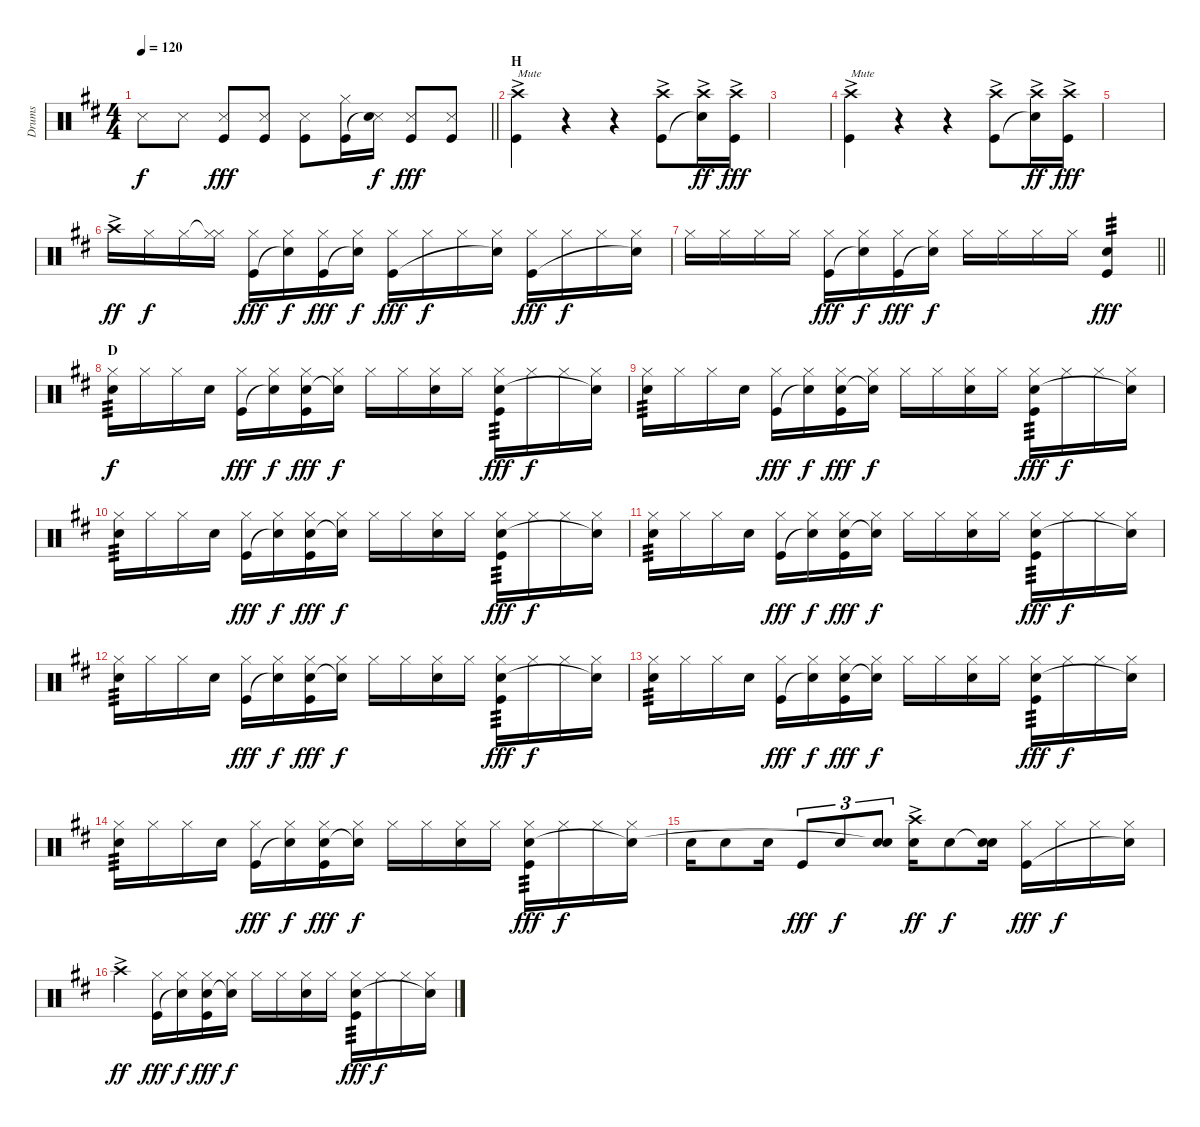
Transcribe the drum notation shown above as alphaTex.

\track ("Drums" "Drums") {instrument percussion}
\staff {score}
\articulation defaults
\ts (4 4)
\tempo 120
\clef neutral
\barLineRight lightlight
\ks d "Snare (side stick) 3".8{dy f} "Snare (side stick) 3".8
("Snare (side stick) 3" "Kick (hit)").8{dy fff} ("Snare (side stick) 3" "Kick (hit)").8 ("Snare (side stick) 3" "Kick (hit)").8 ("Hi-Hat (closed)" "Kick (hit)").16{txt ""} ("Snare (side stick) 3" "Snare (hit)"{t}).16{dy f} ("Snare (side stick) 3" "Kick (hit)").8{dy fff} ("Snare (side stick) 3" "Kick (hit)").8 |
\section ("" "H")
("Crash high (hit)"{ac} "Kick (hit)").4{txt "Mute"} r.4 r.4 ("Crash high (hit)"{ac} "Kick (hit)").8 ("Crash high (hit)"{ac} "Snare (hit)"{t}).16{dy ff} ("Crash high (hit)"{ac} "Kick (hit)").16{dy fff} |
|
("Crash high (hit)"{ac} "Kick (hit)").4{txt "Mute"} r.4 r.4 ("Crash high (hit)"{ac} "Kick (hit)").8 ("Crash high (hit)"{ac} "Snare (hit)"{t}).16{dy ff} ("Crash high (hit)"{ac} "Kick (hit)").16{dy fff} |
|
"Crash high (hit)"{ac}.16{dy ff} "Hi-Hat (closed)".16{dy f} "Hi-Hat (closed)".16 ("Hi-Hat (closed)"{t} "Hi-Hat (closed)").16 ("Hi-Hat (closed)" "Kick (hit)").16{dy fff} ("Hi-Hat (closed)" "Snare (hit)"{t}).16{dy f} ("Hi-Hat (closed)" "Kick (hit)").16{dy fff} ("Hi-Hat (closed)" "Snare (hit)"{t}).16{dy f} ("Hi-Hat (closed)" "Kick (hit)").16{dy fff} "Hi-Hat (closed)".16{dy f} "Hi-Hat (closed)".16 ("Hi-Hat (closed)" "Snare (hit)"{t}).16 ("Hi-Hat (closed)" "Kick (hit)").16{dy fff} "Hi-Hat (closed)".16{dy f} "Hi-Hat (closed)".16 ("Hi-Hat (closed)" "Snare (hit)"{t}).16 |
\barLineRight lightlight "Hi-Hat (closed)".16 "Hi-Hat (closed)".16 "Hi-Hat (closed)".16 "Hi-Hat (closed)".16
("Hi-Hat (closed)" "Kick (hit)").16{dy fff} ("Hi-Hat (closed)" "Snare (hit)"{t}).16{dy f} ("Hi-Hat (closed)" "Kick (hit)").16{dy fff} ("Hi-Hat (closed)" "Snare (hit)"{t}).16{dy f} "Hi-Hat (closed)".16 "Hi-Hat (closed)".16 "Hi-Hat (closed)".16 "Hi-Hat (closed)".16 ("Snare (hit) 2" "Kick (hit)").4{tp 3 dy fff} |
\section ("" "D")
("Hi-Hat (closed)" "Snare (hit) 2").16{tp 3 dy f} "Hi-Hat (closed)".16 "Hi-Hat (closed)".16 "Snare (hit) 2".16 ("Hi-Hat (closed)" "Kick (hit)").16{dy fff} ("Hi-Hat (closed)" "Snare (hit)"{t}).16{dy f} ("Hi-Hat (closed)" "Snare (hit) 2" "Kick (hit)").16{dy fff} ("Hi-Hat (closed)" "Snare (hit)"{t}).16{dy f} "Hi-Hat (closed)".16 "Hi-Hat (closed)".16 ("Hi-Hat (closed)" "Snare (hit) 2").16 "Hi-Hat (closed)".16 ("Hi-Hat (closed)" "Snare (hit) 2" "Kick (hit)").16{tp 3 dy fff} "Hi-Hat (closed)".16{dy f} "Hi-Hat (closed)".16 ("Hi-Hat (closed)" "Snare (hit)"{t}).16 |
("Hi-Hat (closed)" "Snare (hit) 2").16{tp 3} "Hi-Hat (closed)".16 "Hi-Hat (closed)".16 "Snare (hit) 2".16 ("Hi-Hat (closed)" "Kick (hit)").16{dy fff} ("Hi-Hat (closed)" "Snare (hit)"{t}).16{dy f} ("Hi-Hat (closed)" "Snare (hit) 2" "Kick (hit)").16{dy fff} ("Hi-Hat (closed)" "Snare (hit)"{t}).16{dy f} "Hi-Hat (closed)".16 "Hi-Hat (closed)".16 ("Hi-Hat (closed)" "Snare (hit) 2").16 "Hi-Hat (closed)".16 ("Hi-Hat (closed)" "Snare (hit) 2" "Kick (hit)").16{tp 3 dy fff} "Hi-Hat (closed)".16{dy f} "Hi-Hat (closed)".16 ("Hi-Hat (closed)" "Snare (hit)"{t}).16 |
("Hi-Hat (closed)" "Snare (hit) 2").16{tp 3} "Hi-Hat (closed)".16 "Hi-Hat (closed)".16 "Snare (hit) 2".16 ("Hi-Hat (closed)" "Kick (hit)").16{dy fff} ("Hi-Hat (closed)" "Snare (hit)"{t}).16{dy f} ("Hi-Hat (closed)" "Snare (hit) 2" "Kick (hit)").16{dy fff} ("Hi-Hat (closed)" "Snare (hit)"{t}).16{dy f} "Hi-Hat (closed)".16 "Hi-Hat (closed)".16 ("Hi-Hat (closed)" "Snare (hit) 2").16 "Hi-Hat (closed)".16 ("Hi-Hat (closed)" "Snare (hit) 2" "Kick (hit)").16{tp 3 dy fff} "Hi-Hat (closed)".16{dy f} "Hi-Hat (closed)".16 ("Hi-Hat (closed)" "Snare (hit)"{t}).16 |
("Hi-Hat (closed)" "Snare (hit) 2").16{tp 3} "Hi-Hat (closed)".16 "Hi-Hat (closed)".16 "Snare (hit) 2".16 ("Hi-Hat (closed)" "Kick (hit)").16{dy fff} ("Hi-Hat (closed)" "Snare (hit)"{t}).16{dy f} ("Hi-Hat (closed)" "Snare (hit) 2" "Kick (hit)").16{dy fff} ("Hi-Hat (closed)" "Snare (hit)"{t}).16{dy f} "Hi-Hat (closed)".16 "Hi-Hat (closed)".16 ("Hi-Hat (closed)" "Snare (hit) 2").16 "Hi-Hat (closed)".16 ("Hi-Hat (closed)" "Snare (hit) 2" "Kick (hit)").16{tp 3 dy fff} "Hi-Hat (closed)".16{dy f} "Hi-Hat (closed)".16 ("Hi-Hat (closed)" "Snare (hit)"{t}).16 |
("Hi-Hat (closed)" "Snare (hit) 2").16{tp 3} "Hi-Hat (closed)".16 "Hi-Hat (closed)".16 "Snare (hit) 2".16 ("Hi-Hat (closed)" "Kick (hit)").16{dy fff} ("Hi-Hat (closed)" "Snare (hit)"{t}).16{dy f} ("Hi-Hat (closed)" "Snare (hit) 2" "Kick (hit)").16{dy fff} ("Hi-Hat (closed)" "Snare (hit)"{t}).16{dy f} "Hi-Hat (closed)".16 "Hi-Hat (closed)".16 ("Hi-Hat (closed)" "Snare (hit) 2").16 "Hi-Hat (closed)".16 ("Hi-Hat (closed)" "Snare (hit) 2" "Kick (hit)").16{tp 3 dy fff} "Hi-Hat (closed)".16{dy f} "Hi-Hat (closed)".16 ("Hi-Hat (closed)" "Snare (hit)"{t}).16 |
("Hi-Hat (closed)" "Snare (hit) 2").16{tp 3} "Hi-Hat (closed)".16 "Hi-Hat (closed)".16 "Snare (hit) 2".16 ("Hi-Hat (closed)" "Kick (hit)").16{dy fff} ("Hi-Hat (closed)" "Snare (hit)"{t}).16{dy f} ("Hi-Hat (closed)" "Snare (hit) 2" "Kick (hit)").16{dy fff} ("Hi-Hat (closed)" "Snare (hit)"{t}).16{dy f} "Hi-Hat (closed)".16 "Hi-Hat (closed)".16 ("Hi-Hat (closed)" "Snare (hit) 2").16 "Hi-Hat (closed)".16 ("Hi-Hat (closed)" "Snare (hit) 2" "Kick (hit)").16{tp 3 dy fff} "Hi-Hat (closed)".16{dy f} "Hi-Hat (closed)".16 ("Hi-Hat (closed)" "Snare (hit)"{t}).16 |
("Hi-Hat (closed)" "Snare (hit) 2").16{tp 3} "Hi-Hat (closed)".16 "Hi-Hat (closed)".16 "Snare (hit) 2".16 ("Hi-Hat (closed)" "Kick (hit)").16{dy fff} ("Hi-Hat (closed)" "Snare (hit)"{t}).16{dy f} ("Hi-Hat (closed)" "Snare (hit) 2" "Kick (hit)").16{dy fff} ("Hi-Hat (closed)" "Snare (hit)"{t}).16{dy f} "Hi-Hat (closed)".16 "Hi-Hat (closed)".16 ("Hi-Hat (closed)" "Snare (hit) 2").16 "Hi-Hat (closed)".16 ("Hi-Hat (closed)" "Snare (hit) 2" "Kick (hit)").16{tp 3 dy fff} "Hi-Hat (closed)".16{dy f} "Hi-Hat (closed)".16 ("Hi-Hat (closed)" "Snare (hit)"{t}).16 |
"Snare (hit) 2".16 "Snare (hit) 2".8 "Snare (hit) 2".16 "Kick (hit)".8{tu (3 2) dy fff} "Snare (hit) 2".8{tu (3 2) dy f} ("Snare (hit) 2" "Snare (hit)"{t}).8{tu (3 2)} ("Crash high (hit)"{ac} "Snare (hit) 2").16{dy ff} "Snare (hit) 2".8{dy f} ("Snare (hit)"{t} "Snare (hit) 2").16 ("Hi-Hat (closed)" "Kick (hit)").16{dy fff} "Hi-Hat (closed)".16{dy f} "Hi-Hat (closed)".16 ("Hi-Hat (closed)" "Snare (hit)"{t}).16 |
"Crash high (hit)"{ac}.4{dy ff} ("Hi-Hat (closed)" "Kick (hit)").16{dy fff} ("Hi-Hat (closed)" "Snare (hit)"{t}).16{dy f} ("Hi-Hat (closed)" "Snare (hit) 2" "Kick (hit)").16{dy fff} ("Hi-Hat (closed)" "Snare (hit)"{t}).16{dy f} "Hi-Hat (closed)".16 "Hi-Hat (closed)".16 ("Hi-Hat (closed)" "Snare (hit) 2").16 "Hi-Hat (closed)".16 ("Hi-Hat (closed)" "Snare (hit) 2" "Kick (hit)").16{tp 3 dy fff} "Hi-Hat (closed)".16{dy f} "Hi-Hat (closed)".16 ("Hi-Hat (closed)" "Snare (hit)"{t}).16
